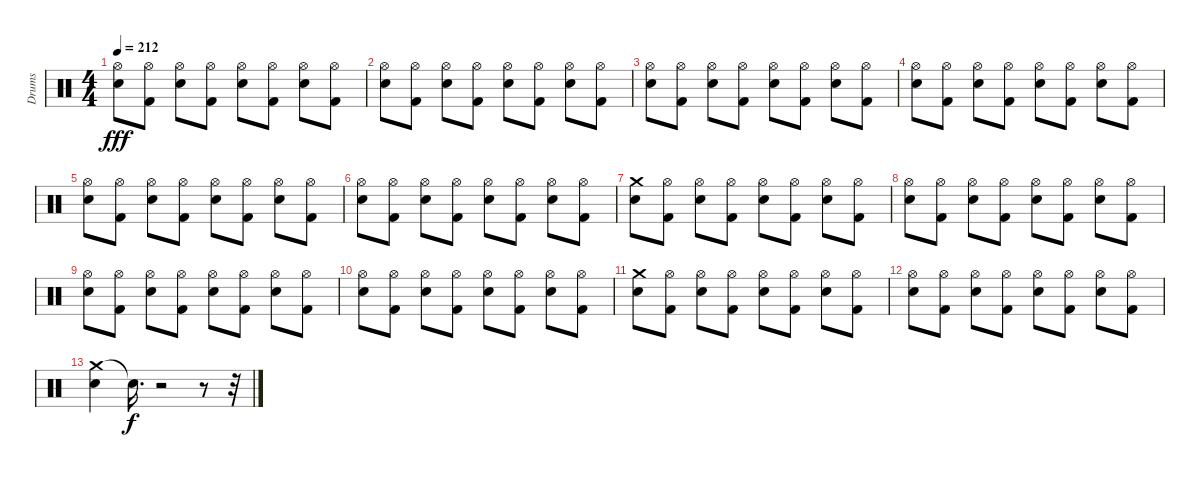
\track ("Drums" "Drums") {instrument percussion}
\staff {score}
\articulation defaults
\ts (4 4)
\tempo 212
\clef neutral
\ks c
("Electric Snare (hit)" "Hi-Hat (open)").8{dy fff} ("Kick (hit) 2" "Hi-Hat (open)").8 ("Electric Snare (hit)" "Hi-Hat (open)").8 ("Kick (hit) 2" "Hi-Hat (open)").8 ("Electric Snare (hit)" "Hi-Hat (open)").8 ("Kick (hit) 2" "Hi-Hat (open)").8 ("Electric Snare (hit)" "Hi-Hat (open)").8 ("Kick (hit) 2" "Hi-Hat (open)").8 |
("Electric Snare (hit)" "Hi-Hat (open)").8 ("Kick (hit) 2" "Hi-Hat (open)").8 ("Electric Snare (hit)" "Hi-Hat (open)").8 ("Kick (hit) 2" "Hi-Hat (open)").8 ("Electric Snare (hit)" "Hi-Hat (open)").8 ("Kick (hit) 2" "Hi-Hat (open)").8 ("Electric Snare (hit)" "Hi-Hat (open)").8 ("Kick (hit) 2" "Hi-Hat (open)").8 |
("Electric Snare (hit)" "Hi-Hat (open)").8 ("Kick (hit) 2" "Hi-Hat (open)").8 ("Electric Snare (hit)" "Hi-Hat (open)").8 ("Kick (hit) 2" "Hi-Hat (open)").8 ("Electric Snare (hit)" "Hi-Hat (open)").8 ("Kick (hit) 2" "Hi-Hat (open)").8 ("Electric Snare (hit)" "Hi-Hat (open)").8 ("Kick (hit) 2" "Hi-Hat (open)").8 |
("Electric Snare (hit)" "Hi-Hat (open)").8 ("Kick (hit) 2" "Hi-Hat (open)").8 ("Electric Snare (hit)" "Hi-Hat (open)").8 ("Kick (hit) 2" "Hi-Hat (open)").8 ("Electric Snare (hit)" "Hi-Hat (open)").8 ("Kick (hit) 2" "Hi-Hat (open)").8 ("Electric Snare (hit)" "Hi-Hat (open)").8 ("Kick (hit) 2" "Hi-Hat (open)").8 |
("Electric Snare (hit)" "Hi-Hat (open)").8 ("Kick (hit) 2" "Hi-Hat (open)").8 ("Electric Snare (hit)" "Hi-Hat (open)").8 ("Kick (hit) 2" "Hi-Hat (open)").8 ("Electric Snare (hit)" "Hi-Hat (open)").8 ("Kick (hit) 2" "Hi-Hat (open)").8 ("Electric Snare (hit)" "Hi-Hat (open)").8 ("Kick (hit) 2" "Hi-Hat (open)").8 |
("Electric Snare (hit)" "Hi-Hat (open)").8 ("Kick (hit) 2" "Hi-Hat (open)").8 ("Electric Snare (hit)" "Hi-Hat (open)").8 ("Kick (hit) 2" "Hi-Hat (open)").8 ("Electric Snare (hit)" "Hi-Hat (open)").8 ("Kick (hit) 2" "Hi-Hat (open)").8 ("Electric Snare (hit)" "Hi-Hat (open)").8 ("Kick (hit) 2" "Hi-Hat (open)").8 |
("Crash medium (hit)" "Electric Snare (hit)").8 ("Hi-Hat (open)" "Kick (hit) 2").8 ("Electric Snare (hit)" "Hi-Hat (open)").8 ("Kick (hit) 2" "Hi-Hat (open)").8 ("Electric Snare (hit)" "Hi-Hat (open)").8 ("Kick (hit) 2" "Hi-Hat (open)").8 ("Electric Snare (hit)" "Hi-Hat (open)").8 ("Kick (hit) 2" "Hi-Hat (open)").8 |
("Electric Snare (hit)" "Hi-Hat (open)").8 ("Kick (hit) 2" "Hi-Hat (open)").8 ("Electric Snare (hit)" "Hi-Hat (open)").8 ("Kick (hit) 2" "Hi-Hat (open)").8 ("Electric Snare (hit)" "Hi-Hat (open)").8 ("Kick (hit) 2" "Hi-Hat (open)").8 ("Electric Snare (hit)" "Hi-Hat (open)").8 ("Kick (hit) 2" "Hi-Hat (open)").8 |
("Electric Snare (hit)" "Hi-Hat (open)").8 ("Kick (hit) 2" "Hi-Hat (open)").8 ("Electric Snare (hit)" "Hi-Hat (open)").8 ("Kick (hit) 2" "Hi-Hat (open)").8 ("Electric Snare (hit)" "Hi-Hat (open)").8 ("Kick (hit) 2" "Hi-Hat (open)").8 ("Electric Snare (hit)" "Hi-Hat (open)").8 ("Kick (hit) 2" "Hi-Hat (open)").8 |
("Electric Snare (hit)" "Hi-Hat (open)").8 ("Kick (hit) 2" "Hi-Hat (open)").8 ("Electric Snare (hit)" "Hi-Hat (open)").8 ("Kick (hit) 2" "Hi-Hat (open)").8 ("Electric Snare (hit)" "Hi-Hat (open)").8 ("Kick (hit) 2" "Hi-Hat (open)").8 ("Electric Snare (hit)" "Hi-Hat (open)").8 ("Kick (hit) 2" "Hi-Hat (open)").8 |
("Crash medium (hit)" "Electric Snare (hit)").8 ("Hi-Hat (open)" "Kick (hit) 2").8 ("Electric Snare (hit)" "Hi-Hat (open)").8 ("Kick (hit) 2" "Hi-Hat (open)").8 ("Electric Snare (hit)" "Hi-Hat (open)").8 ("Kick (hit) 2" "Hi-Hat (open)").8 ("Electric Snare (hit)" "Hi-Hat (open)").8 ("Kick (hit) 2" "Hi-Hat (open)").8 |
("Electric Snare (hit)" "Hi-Hat (open)").8 ("Kick (hit) 2" "Hi-Hat (open)").8 ("Electric Snare (hit)" "Hi-Hat (open)").8 ("Kick (hit) 2" "Hi-Hat (open)").8 ("Electric Snare (hit)" "Hi-Hat (open)").8 ("Kick (hit) 2" "Hi-Hat (open)").8 ("Electric Snare (hit)" "Hi-Hat (open)").8 ("Kick (hit) 2" "Hi-Hat (open)").8 |
("Crash medium (hit)" "Electric Snare (hit)").4 "Snare (hit)"{t}.16{d dy f} r.2 r.8 r.32
